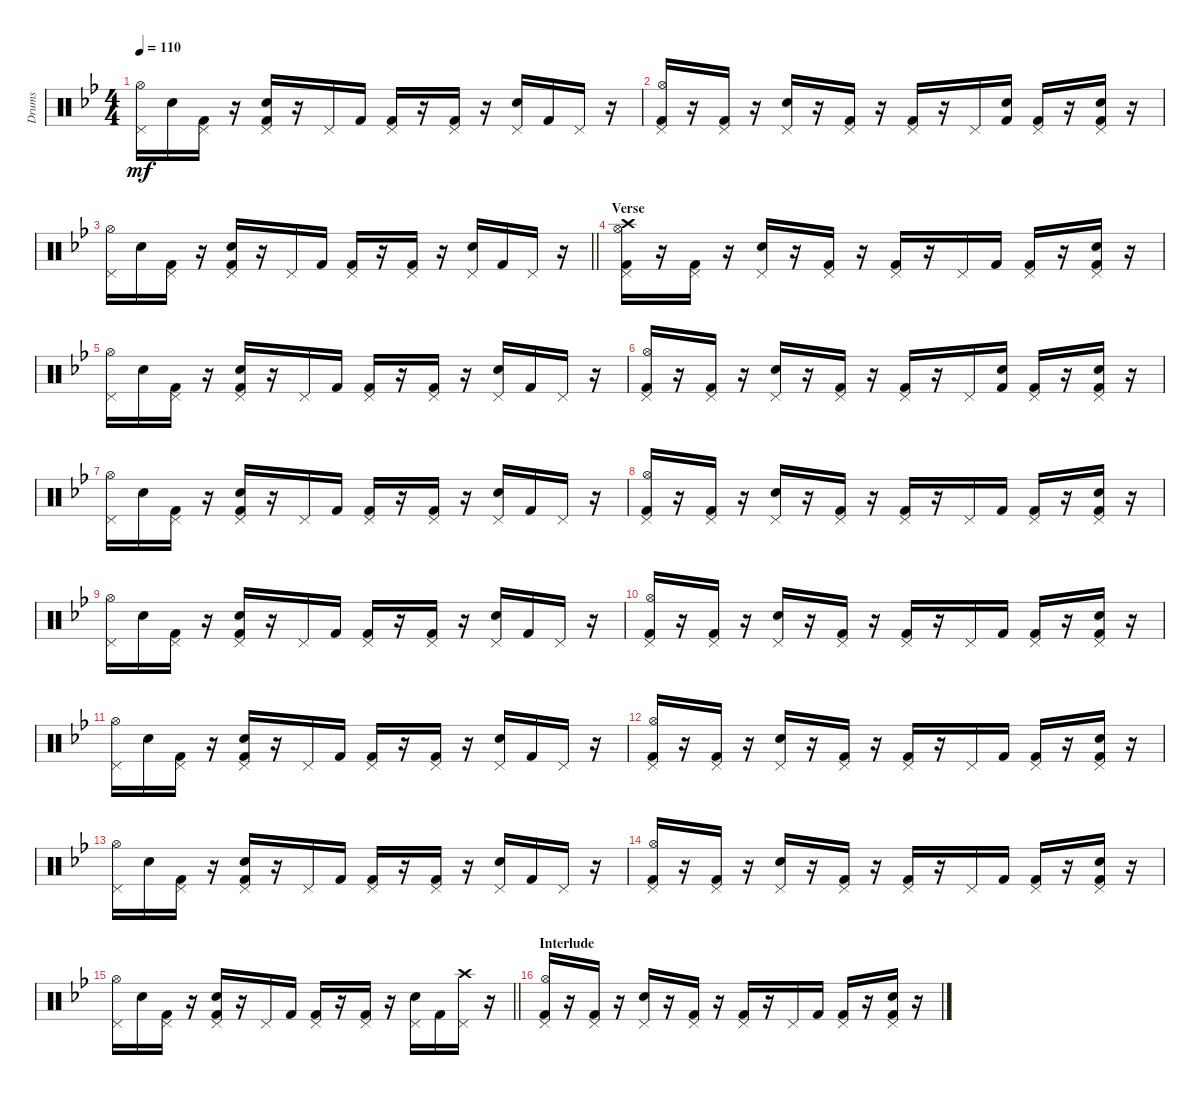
\track ("Drums" "Drums") {instrument percussion}
\staff {score}
\articulation defaults
\ts (4 4)
\tempo 110
\clef neutral
\ks gminor
("Pedal Hi-Hat (hit)" "Hi-Hat (open)").16{dy mf} "Snare (hit) 2".16 ("Kick (hit) 2" "Pedal Hi-Hat (hit)").16 r.16 ("Kick (hit) 2" "Snare (hit) 2" "Pedal Hi-Hat (hit)").16 r.16 "Pedal Hi-Hat (hit)".16 "Kick (hit) 2".16 ("Kick (hit) 2" "Pedal Hi-Hat (hit)").16 r.16 ("Kick (hit) 2" "Pedal Hi-Hat (hit)").16 r.16 ("Snare (hit) 2" "Pedal Hi-Hat (hit)").16 "Kick (hit) 2".16 "Pedal Hi-Hat (hit)".16 r.16 |
("Kick (hit) 2" "Pedal Hi-Hat (hit)" "Hi-Hat (open)").16 r.16 ("Kick (hit) 2" "Pedal Hi-Hat (hit)").16 r.16 ("Snare (hit) 2" "Pedal Hi-Hat (hit)").16 r.16 ("Kick (hit) 2" "Pedal Hi-Hat (hit)").16 r.16 ("Kick (hit) 2" "Pedal Hi-Hat (hit)").16 r.16 "Pedal Hi-Hat (hit)".16 ("Kick (hit) 2" "Snare (hit) 2").16 ("Kick (hit) 2" "Pedal Hi-Hat (hit)").16 r.16 ("Kick (hit) 2" "Snare (hit) 2" "Pedal Hi-Hat (hit)").16 r.16 |
\barLineRight lightlight
("Pedal Hi-Hat (hit)" "Hi-Hat (open)").16 "Snare (hit) 2".16 ("Kick (hit) 2" "Pedal Hi-Hat (hit)").16 r.16 ("Kick (hit) 2" "Snare (hit) 2" "Pedal Hi-Hat (hit)").16 r.16 "Pedal Hi-Hat (hit)".16 "Kick (hit) 2".16 ("Kick (hit) 2" "Pedal Hi-Hat (hit)").16 r.16 ("Kick (hit) 2" "Pedal Hi-Hat (hit)").16 r.16 ("Snare (hit) 2" "Pedal Hi-Hat (hit)").16 "Kick (hit) 2".16 "Pedal Hi-Hat (hit)".16 r.16 |
\section ("" "Verse")
("Kick (hit) 2" "Pedal Hi-Hat (hit)" "Hi-Hat (open)" "Crash high (hit)").16 r.16 ("Kick (hit) 2" "Pedal Hi-Hat (hit)").16 r.16 ("Snare (hit) 2" "Pedal Hi-Hat (hit)").16 r.16 ("Kick (hit) 2" "Pedal Hi-Hat (hit)").16 r.16 ("Kick (hit) 2" "Pedal Hi-Hat (hit)").16 r.16 "Pedal Hi-Hat (hit)".16 "Kick (hit) 2".16 ("Kick (hit) 2" "Pedal Hi-Hat (hit)").16 r.16 ("Kick (hit) 2" "Snare (hit) 2" "Pedal Hi-Hat (hit)").16 r.16 |
("Pedal Hi-Hat (hit)" "Hi-Hat (open)").16 "Snare (hit) 2".16 ("Kick (hit) 2" "Pedal Hi-Hat (hit)").16 r.16 ("Kick (hit) 2" "Snare (hit) 2" "Pedal Hi-Hat (hit)").16 r.16 "Pedal Hi-Hat (hit)".16 "Kick (hit) 2".16 ("Kick (hit) 2" "Pedal Hi-Hat (hit)").16 r.16 ("Kick (hit) 2" "Pedal Hi-Hat (hit)").16 r.16 ("Snare (hit) 2" "Pedal Hi-Hat (hit)").16 "Kick (hit) 2".16 "Pedal Hi-Hat (hit)".16 r.16 |
("Kick (hit) 2" "Pedal Hi-Hat (hit)" "Hi-Hat (open)").16 r.16 ("Kick (hit) 2" "Pedal Hi-Hat (hit)").16 r.16 ("Snare (hit) 2" "Pedal Hi-Hat (hit)").16 r.16 ("Kick (hit) 2" "Pedal Hi-Hat (hit)").16 r.16 ("Kick (hit) 2" "Pedal Hi-Hat (hit)").16 r.16 "Pedal Hi-Hat (hit)".16 ("Kick (hit) 2" "Snare (hit) 2").16 ("Kick (hit) 2" "Pedal Hi-Hat (hit)").16 r.16 ("Kick (hit) 2" "Snare (hit) 2" "Pedal Hi-Hat (hit)").16 r.16 |
("Pedal Hi-Hat (hit)" "Hi-Hat (open)").16 "Snare (hit) 2".16 ("Kick (hit) 2" "Pedal Hi-Hat (hit)").16 r.16 ("Kick (hit) 2" "Snare (hit) 2" "Pedal Hi-Hat (hit)").16 r.16 "Pedal Hi-Hat (hit)".16 "Kick (hit) 2".16 ("Kick (hit) 2" "Pedal Hi-Hat (hit)").16 r.16 ("Kick (hit) 2" "Pedal Hi-Hat (hit)").16 r.16 ("Snare (hit) 2" "Pedal Hi-Hat (hit)").16 "Kick (hit) 2".16 "Pedal Hi-Hat (hit)".16 r.16 |
("Kick (hit) 2" "Pedal Hi-Hat (hit)" "Hi-Hat (open)").16 r.16 ("Kick (hit) 2" "Pedal Hi-Hat (hit)").16 r.16 ("Snare (hit) 2" "Pedal Hi-Hat (hit)").16 r.16 ("Kick (hit) 2" "Pedal Hi-Hat (hit)").16 r.16 ("Kick (hit) 2" "Pedal Hi-Hat (hit)").16 r.16 "Pedal Hi-Hat (hit)".16 "Kick (hit) 2".16 ("Kick (hit) 2" "Pedal Hi-Hat (hit)").16 r.16 ("Kick (hit) 2" "Snare (hit) 2" "Pedal Hi-Hat (hit)").16 r.16 |
("Pedal Hi-Hat (hit)" "Hi-Hat (open)").16 "Snare (hit) 2".16 ("Kick (hit) 2" "Pedal Hi-Hat (hit)").16 r.16 ("Kick (hit) 2" "Snare (hit) 2" "Pedal Hi-Hat (hit)").16 r.16 "Pedal Hi-Hat (hit)".16 "Kick (hit) 2".16 ("Kick (hit) 2" "Pedal Hi-Hat (hit)").16 r.16 ("Kick (hit) 2" "Pedal Hi-Hat (hit)").16 r.16 ("Snare (hit) 2" "Pedal Hi-Hat (hit)").16 "Kick (hit) 2".16 "Pedal Hi-Hat (hit)".16 r.16 |
("Kick (hit) 2" "Pedal Hi-Hat (hit)" "Hi-Hat (open)").16 r.16 ("Kick (hit) 2" "Pedal Hi-Hat (hit)").16 r.16 ("Snare (hit) 2" "Pedal Hi-Hat (hit)").16 r.16 ("Kick (hit) 2" "Pedal Hi-Hat (hit)").16 r.16 ("Kick (hit) 2" "Pedal Hi-Hat (hit)").16 r.16 "Pedal Hi-Hat (hit)".16 "Kick (hit) 2".16 ("Kick (hit) 2" "Pedal Hi-Hat (hit)").16 r.16 ("Kick (hit) 2" "Snare (hit) 2" "Pedal Hi-Hat (hit)").16 r.16 |
("Pedal Hi-Hat (hit)" "Hi-Hat (open)").16 "Snare (hit) 2".16 ("Kick (hit) 2" "Pedal Hi-Hat (hit)").16 r.16 ("Kick (hit) 2" "Snare (hit) 2" "Pedal Hi-Hat (hit)").16 r.16 "Pedal Hi-Hat (hit)".16 "Kick (hit) 2".16 ("Kick (hit) 2" "Pedal Hi-Hat (hit)").16 r.16 ("Kick (hit) 2" "Pedal Hi-Hat (hit)").16 r.16 ("Snare (hit) 2" "Pedal Hi-Hat (hit)").16 "Kick (hit) 2".16 "Pedal Hi-Hat (hit)".16 r.16 |
("Kick (hit) 2" "Pedal Hi-Hat (hit)" "Hi-Hat (open)").16 r.16 ("Kick (hit) 2" "Pedal Hi-Hat (hit)").16 r.16 ("Snare (hit) 2" "Pedal Hi-Hat (hit)").16 r.16 ("Kick (hit) 2" "Pedal Hi-Hat (hit)").16 r.16 ("Kick (hit) 2" "Pedal Hi-Hat (hit)").16 r.16 "Pedal Hi-Hat (hit)".16 "Kick (hit) 2".16 ("Kick (hit) 2" "Pedal Hi-Hat (hit)").16 r.16 ("Kick (hit) 2" "Snare (hit) 2" "Pedal Hi-Hat (hit)").16 r.16 |
("Pedal Hi-Hat (hit)" "Hi-Hat (open)").16 "Snare (hit) 2".16 ("Kick (hit) 2" "Pedal Hi-Hat (hit)").16 r.16 ("Kick (hit) 2" "Snare (hit) 2" "Pedal Hi-Hat (hit)").16 r.16 "Pedal Hi-Hat (hit)".16 "Kick (hit) 2".16 ("Kick (hit) 2" "Pedal Hi-Hat (hit)").16 r.16 ("Kick (hit) 2" "Pedal Hi-Hat (hit)").16 r.16 ("Snare (hit) 2" "Pedal Hi-Hat (hit)").16 "Kick (hit) 2".16 "Pedal Hi-Hat (hit)".16 r.16 |
("Kick (hit) 2" "Pedal Hi-Hat (hit)" "Hi-Hat (open)").16 r.16 ("Kick (hit) 2" "Pedal Hi-Hat (hit)").16 r.16 ("Snare (hit) 2" "Pedal Hi-Hat (hit)").16 r.16 ("Kick (hit) 2" "Pedal Hi-Hat (hit)").16 r.16 ("Kick (hit) 2" "Pedal Hi-Hat (hit)").16 r.16 "Pedal Hi-Hat (hit)".16 "Kick (hit) 2".16 ("Kick (hit) 2" "Pedal Hi-Hat (hit)").16 r.16 ("Kick (hit) 2" "Snare (hit) 2" "Pedal Hi-Hat (hit)").16 r.16 |
\barLineRight lightlight
("Pedal Hi-Hat (hit)" "Hi-Hat (open)").16 "Snare (hit) 2".16 ("Kick (hit) 2" "Pedal Hi-Hat (hit)").16 r.16 ("Kick (hit) 2" "Snare (hit) 2" "Pedal Hi-Hat (hit)").16 r.16 "Pedal Hi-Hat (hit)".16 "Kick (hit) 2".16 ("Kick (hit) 2" "Pedal Hi-Hat (hit)").16 r.16 ("Kick (hit) 2" "Pedal Hi-Hat (hit)").16 r.16 ("Snare (hit) 2" "Pedal Hi-Hat (hit)").16 "Kick (hit) 2".16 ("Pedal Hi-Hat (hit)" "Crash high (hit)").16 r.16 |
\section ("" "Interlude")
("Kick (hit) 2" "Pedal Hi-Hat (hit)" "Hi-Hat (open)").16 r.16 ("Kick (hit) 2" "Pedal Hi-Hat (hit)").16 r.16 ("Snare (hit) 2" "Pedal Hi-Hat (hit)").16 r.16 ("Kick (hit) 2" "Pedal Hi-Hat (hit)").16 r.16 ("Kick (hit) 2" "Pedal Hi-Hat (hit)").16 r.16 "Pedal Hi-Hat (hit)".16 "Kick (hit) 2".16 ("Kick (hit) 2" "Pedal Hi-Hat (hit)").16 r.16 ("Kick (hit) 2" "Snare (hit) 2" "Pedal Hi-Hat (hit)").16 r.16
